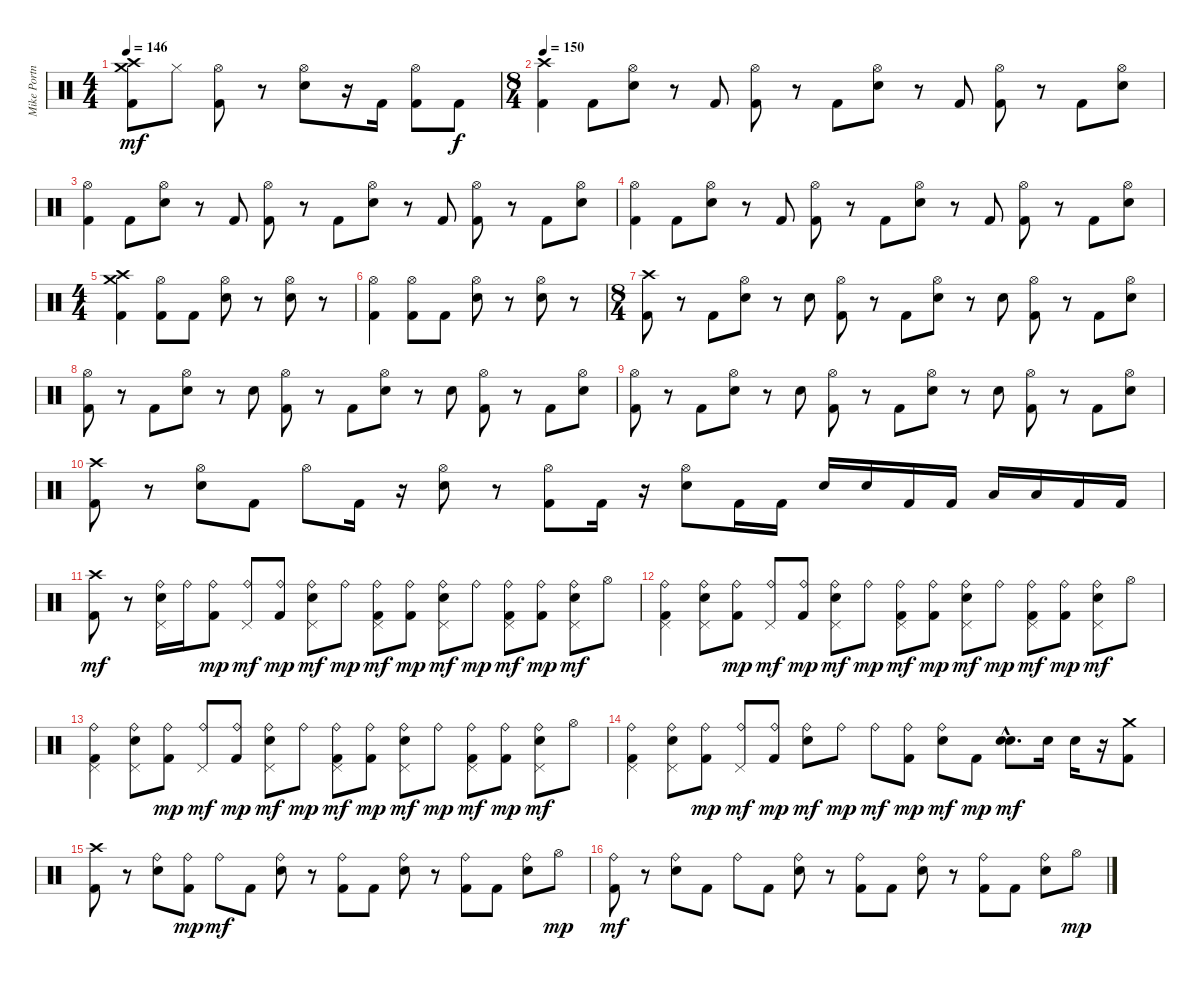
\track ("Mike Portnoy: Drums" "Mike Portn") {instrument percussion}
\staff {score}
\articulation defaults
\ts (4 4)
\tempo 146
\clef neutral
\ks c
("Kick (hit) 2" "Crash high (hit)" "Crash medium (hit)").8{dy mf} "Hi-Hat (closed)".8 ("Kick (hit) 2" "Hi-Hat (open)").8 r.8 ("Electric Snare (hit)" "Hi-Hat (open)").8 r.16 "Kick (hit) 2".16 ("Kick (hit) 2" "Hi-Hat (open)").8 "Kick (hit) 2".8{dy f} |
\ts (8 4)
\tempo 150
("Kick (hit) 2" "Crash high (hit)").4 "Kick (hit) 2".8 ("Electric Snare (hit)" "Hi-Hat (open)").8 r.8 "Kick (hit) 2".8 ("Kick (hit) 2" "Hi-Hat (open)").8 r.8 "Kick (hit) 2".8 ("Electric Snare (hit)" "Hi-Hat (open)").8 r.8 "Kick (hit) 2".8 ("Kick (hit) 2" "Hi-Hat (open)").8 r.8 "Kick (hit) 2".8 ("Electric Snare (hit)" "Hi-Hat (open)").8 |
("Kick (hit) 2" "Hi-Hat (open)").4 "Kick (hit) 2".8 ("Electric Snare (hit)" "Hi-Hat (open)").8 r.8 "Kick (hit) 2".8 ("Kick (hit) 2" "Hi-Hat (open)").8 r.8 "Kick (hit) 2".8 ("Electric Snare (hit)" "Hi-Hat (open)").8 r.8 "Kick (hit) 2".8 ("Kick (hit) 2" "Hi-Hat (open)").8 r.8 "Kick (hit) 2".8 ("Electric Snare (hit)" "Hi-Hat (open)").8 |
("Kick (hit) 2" "Hi-Hat (open)").4 "Kick (hit) 2".8 ("Electric Snare (hit)" "Hi-Hat (open)").8 r.8 "Kick (hit) 2".8 ("Kick (hit) 2" "Hi-Hat (open)").8 r.8 "Kick (hit) 2".8 ("Electric Snare (hit)" "Hi-Hat (open)").8 r.8 "Kick (hit) 2".8 ("Kick (hit) 2" "Hi-Hat (open)").8 r.8 "Kick (hit) 2".8 ("Electric Snare (hit)" "Hi-Hat (open)").8 |
\ts (4 4)
("Kick (hit) 2" "Crash high (hit)" "Crash medium (hit)").4 ("Kick (hit) 2" "Hi-Hat (open)").8 "Kick (hit) 2".8 ("Electric Snare (hit)" "Hi-Hat (open)").8 r.8 ("Electric Snare (hit)" "Hi-Hat (open)").8 r.8 |
("Kick (hit) 2" "Hi-Hat (open)").4 ("Kick (hit) 2" "Hi-Hat (open)").8 "Kick (hit) 2".8 ("Electric Snare (hit)" "Hi-Hat (open)").8 r.8 ("Electric Snare (hit)" "Hi-Hat (open)").8 r.8 |
\ts (8 4)
("Kick (hit) 2" "Crash high (hit)").8 r.8 "Kick (hit) 2".8 ("Electric Snare (hit)" "Hi-Hat (open)").8 r.8 "Electric Snare (hit)".8 ("Kick (hit) 2" "Hi-Hat (open)").8 r.8 "Kick (hit) 2".8 ("Electric Snare (hit)" "Hi-Hat (open)").8 r.8 "Electric Snare (hit)".8 ("Kick (hit) 2" "Hi-Hat (open)").8 r.8 "Kick (hit) 2".8 ("Electric Snare (hit)" "Hi-Hat (open)").8 |
("Kick (hit) 2" "Hi-Hat (open)").8 r.8 "Kick (hit) 2".8 ("Electric Snare (hit)" "Hi-Hat (open)").8 r.8 "Electric Snare (hit)".8 ("Kick (hit) 2" "Hi-Hat (open)").8 r.8 "Kick (hit) 2".8 ("Electric Snare (hit)" "Hi-Hat (open)").8 r.8 "Electric Snare (hit)".8 ("Kick (hit) 2" "Hi-Hat (open)").8 r.8 "Kick (hit) 2".8 ("Electric Snare (hit)" "Hi-Hat (open)").8 |
("Kick (hit) 2" "Hi-Hat (open)").8 r.8 "Kick (hit) 2".8 ("Electric Snare (hit)" "Hi-Hat (open)").8 r.8 "Electric Snare (hit)".8 ("Kick (hit) 2" "Hi-Hat (open)").8 r.8 "Kick (hit) 2".8 ("Electric Snare (hit)" "Hi-Hat (open)").8 r.8 "Electric Snare (hit)".8 ("Kick (hit) 2" "Hi-Hat (open)").8 r.8 "Kick (hit) 2".8 ("Electric Snare (hit)" "Hi-Hat (open)").8 |
("Kick (hit) 2" "Crash high (hit)").8 r.8 ("Electric Snare (hit)" "Hi-Hat (open)").8 "Kick (hit) 2".8 "Hi-Hat (open)".8 "Kick (hit) 2".16 r.16 ("Electric Snare (hit)" "Hi-Hat (open)").8 r.8 ("Kick (hit) 2" "Hi-Hat (open)").8 "Kick (hit) 2".16 r.16 ("Electric Snare (hit)" "Hi-Hat (open)").8 "Kick (hit) 2".16 "Kick (hit) 2".16 "Electric Snare (hit)".16 "Electric Snare (hit)".16 "Kick (hit) 2".16 "Kick (hit) 2".16 "Low Tom (hit)".16 "Low Tom (hit)".16 "Kick (hit) 2".16 "Kick (hit) 2".16 |
("Kick (hit) 2" "Crash high (hit)").8{dy mf} r.8 ("Electric Snare (hit)" "Pedal Hi-Hat (hit)" "Ride (bell)").16 "Ride (bell)".16 ("Kick (hit) 2" "Ride (bell)").8{dy mp} ("Pedal Hi-Hat (hit)" "Ride (bell)").8{dy mf} ("Kick (hit) 2" "Ride (bell)").8{dy mp} ("Electric Snare (hit)" "Pedal Hi-Hat (hit)" "Ride (bell)").8{dy mf} "Ride (bell)".8{dy mp} ("Kick (hit) 2" "Pedal Hi-Hat (hit)" "Ride (bell)").8{dy mf} ("Kick (hit) 2" "Ride (bell)").8{dy mp} ("Electric Snare (hit)" "Pedal Hi-Hat (hit)" "Ride (bell)").8{dy mf} "Ride (bell)".8{dy mp} ("Kick (hit) 2" "Pedal Hi-Hat (hit)" "Ride (bell)").8{dy mf} ("Kick (hit) 2" "Ride (bell)").8{dy mp} ("Electric Snare (hit)" "Pedal Hi-Hat (hit)" "Ride (bell)").8{dy mf} "Hi-Hat (open)".8 |
("Kick (hit) 2" "Pedal Hi-Hat (hit)" "Ride (bell)").4 ("Electric Snare (hit)" "Pedal Hi-Hat (hit)" "Ride (bell)").8 ("Kick (hit) 2" "Ride (bell)").8{dy mp} ("Pedal Hi-Hat (hit)" "Ride (bell)").8{dy mf} ("Kick (hit) 2" "Ride (bell)").8{dy mp} ("Electric Snare (hit)" "Pedal Hi-Hat (hit)" "Ride (bell)").8{dy mf} "Ride (bell)".8{dy mp} ("Kick (hit) 2" "Pedal Hi-Hat (hit)" "Ride (bell)").8{dy mf} ("Kick (hit) 2" "Ride (bell)").8{dy mp} ("Electric Snare (hit)" "Pedal Hi-Hat (hit)" "Ride (bell)").8{dy mf} "Ride (bell)".8{dy mp} ("Kick (hit) 2" "Pedal Hi-Hat (hit)" "Ride (bell)").8{dy mf} ("Kick (hit) 2" "Ride (bell)").8{dy mp} ("Electric Snare (hit)" "Pedal Hi-Hat (hit)" "Ride (bell)").8{dy mf} "Hi-Hat (open)".8 |
("Kick (hit) 2" "Pedal Hi-Hat (hit)" "Ride (bell)").4 ("Electric Snare (hit)" "Pedal Hi-Hat (hit)" "Ride (bell)").8 ("Kick (hit) 2" "Ride (bell)").8{dy mp} ("Pedal Hi-Hat (hit)" "Ride (bell)").8{dy mf} ("Kick (hit) 2" "Ride (bell)").8{dy mp} ("Electric Snare (hit)" "Pedal Hi-Hat (hit)" "Ride (bell)").8{dy mf} "Ride (bell)".8{dy mp} ("Kick (hit) 2" "Pedal Hi-Hat (hit)" "Ride (bell)").8{dy mf} ("Kick (hit) 2" "Ride (bell)").8{dy mp} ("Electric Snare (hit)" "Pedal Hi-Hat (hit)" "Ride (bell)").8{dy mf} "Ride (bell)".8{dy mp} ("Kick (hit) 2" "Pedal Hi-Hat (hit)" "Ride (bell)").8{dy mf} ("Kick (hit) 2" "Ride (bell)").8{dy mp} ("Electric Snare (hit)" "Pedal Hi-Hat (hit)" "Ride (bell)").8{dy mf} "Hi-Hat (open)".8 |
("Kick (hit) 2" "Pedal Hi-Hat (hit)" "Ride (bell)").4 ("Electric Snare (hit)" "Pedal Hi-Hat (hit)" "Ride (bell)").8 ("Kick (hit) 2" "Ride (bell)").8{dy mp} ("Pedal Hi-Hat (hit)" "Ride (bell)").8{dy mf} ("Kick (hit) 2" "Ride (bell)").8{dy mp} ("Electric Snare (hit)" "Ride (bell)").8{dy mf} "Ride (bell)".8{dy mp} "Ride (bell)".8{dy mf} ("Kick (hit) 2" "Ride (bell)").8{dy mp} ("Electric Snare (hit)" "Ride (bell)").8{dy mf} "Kick (hit) 2".8{dy mp} ("Electric Snare (hit)"{hac} "Electric Snare (hit)"{hac}).8{d dy mf} "Electric Snare (hit)".16 "Electric Snare (hit)".16 r.16 ("Kick (hit) 2" "Crash medium (hit)").8 |
("Kick (hit) 2" "Crash high (hit)").8 r.8 ("Electric Snare (hit)" "Ride (bell)").8 ("Kick (hit) 2" "Ride (bell)").8{dy mp} "Ride (bell)".8{dy mf} "Kick (hit) 2".8 ("Electric Snare (hit)" "Ride (bell)").8 r.8 ("Kick (hit) 2" "Ride (bell)").8 "Kick (hit) 2".8 ("Electric Snare (hit)" "Ride (bell)").8 r.8 ("Kick (hit) 2" "Ride (bell)").8 "Kick (hit) 2".8 ("Electric Snare (hit)" "Ride (bell)").8 "Hi-Hat (open)".8{dy mp} |
("Kick (hit) 2" "Ride (bell)").8{dy mf} r.8 ("Electric Snare (hit)" "Ride (bell)").8 "Kick (hit) 2".8 "Ride (bell)".8 "Kick (hit) 2".8 ("Electric Snare (hit)" "Ride (bell)").8 r.8 ("Kick (hit) 2" "Ride (bell)").8 "Kick (hit) 2".8 ("Electric Snare (hit)" "Ride (bell)").8 r.8 ("Kick (hit) 2" "Ride (bell)").8 "Kick (hit) 2".8 ("Electric Snare (hit)" "Ride (bell)").8 "Hi-Hat (open)".8{dy mp}
